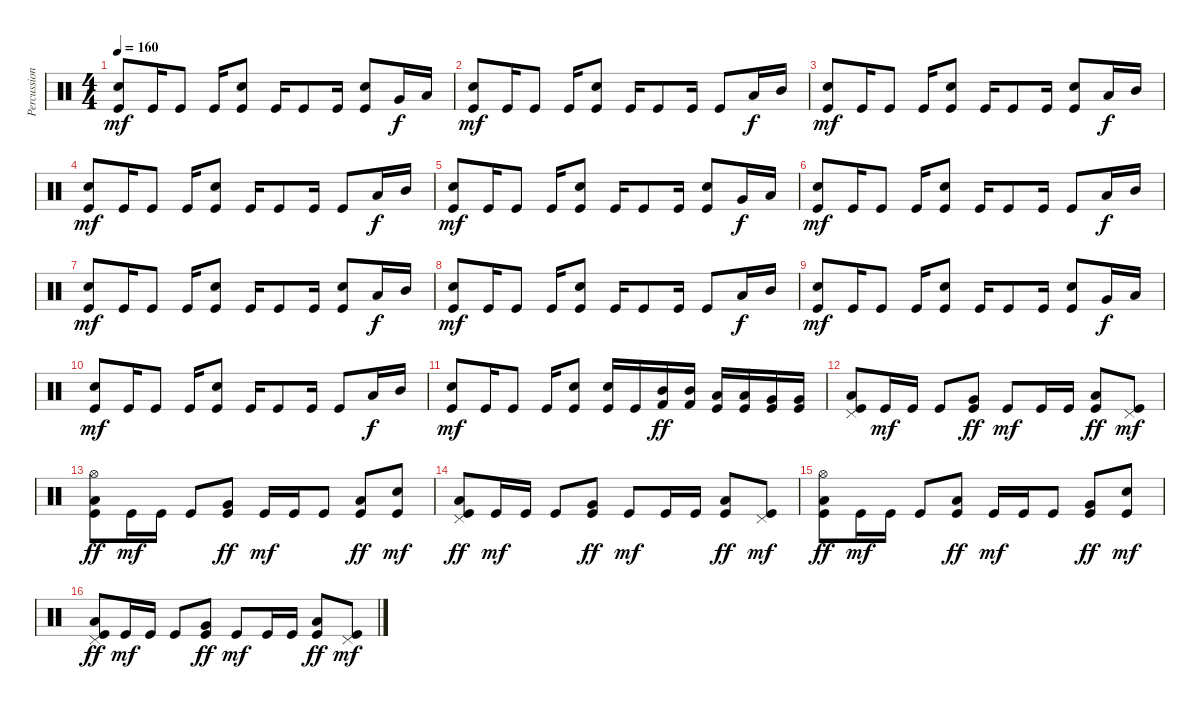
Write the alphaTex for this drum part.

\track ("Percussion" "Percussion") {instrument percussion}
\staff {score}
\articulation defaults
\ts (4 4)
\tempo 160
\clef neutral
\ks c
("Kick (hit)" "Electric Snare (hit)").8{dy mf} "Kick (hit)".16 "Kick (hit)".8 "Kick (hit)".16 ("Kick (hit)" "Snare (hit) 2").8 "Kick (hit)".16 "Kick (hit)".8 "Kick (hit)".16 ("Kick (hit)" "Snare (hit) 2").8 "Very Low Tom (hit)".16{dy f} "Low Tom (hit)".16 |
("Kick (hit)" "Electric Snare (hit)").8{dy mf} "Kick (hit)".16 "Kick (hit)".8 "Kick (hit)".16 ("Kick (hit)" "Snare (hit) 2").8 "Kick (hit)".16 "Kick (hit)".8 "Kick (hit)".16 "Kick (hit)".8 "Low Tom (hit)".16{dy f} "Mid Tom (hit)".16 |
("Kick (hit)" "Electric Snare (hit)").8{dy mf} "Kick (hit)".16 "Kick (hit)".8 "Kick (hit)".16 ("Kick (hit)" "Snare (hit) 2").8 "Kick (hit)".16 "Kick (hit)".8 "Kick (hit)".16 ("Kick (hit)" "Snare (hit) 2").8 "Low Tom (hit)".16{dy f} "Mid Tom (hit)".16 |
("Kick (hit)" "Electric Snare (hit)").8{dy mf} "Kick (hit)".16 "Kick (hit)".8 "Kick (hit)".16 ("Kick (hit)" "Snare (hit) 2").8 "Kick (hit)".16 "Kick (hit)".8 "Kick (hit)".16 "Kick (hit)".8 "Low Tom (hit)".16{dy f} "Mid Tom (hit)".16 |
("Kick (hit)" "Electric Snare (hit)").8{dy mf} "Kick (hit)".16 "Kick (hit)".8 "Kick (hit)".16 ("Kick (hit)" "Snare (hit) 2").8 "Kick (hit)".16 "Kick (hit)".8 "Kick (hit)".16 ("Kick (hit)" "Snare (hit) 2").8 "Very Low Tom (hit)".16{dy f} "Low Tom (hit)".16 |
("Kick (hit)" "Electric Snare (hit)").8{dy mf} "Kick (hit)".16 "Kick (hit)".8 "Kick (hit)".16 ("Kick (hit)" "Snare (hit) 2").8 "Kick (hit)".16 "Kick (hit)".8 "Kick (hit)".16 "Kick (hit)".8 "Low Tom (hit)".16{dy f} "Mid Tom (hit)".16 |
("Kick (hit)" "Electric Snare (hit)").8{dy mf} "Kick (hit)".16 "Kick (hit)".8 "Kick (hit)".16 ("Kick (hit)" "Snare (hit) 2").8 "Kick (hit)".16 "Kick (hit)".8 "Kick (hit)".16 ("Kick (hit)" "Snare (hit) 2").8 "Low Tom (hit)".16{dy f} "Mid Tom (hit)".16 |
("Kick (hit)" "Electric Snare (hit)").8{dy mf} "Kick (hit)".16 "Kick (hit)".8 "Kick (hit)".16 ("Kick (hit)" "Snare (hit) 2").8 "Kick (hit)".16 "Kick (hit)".8 "Kick (hit)".16 "Kick (hit)".8 "Low Tom (hit)".16{dy f} "Mid Tom (hit)".16 |
("Kick (hit)" "Electric Snare (hit)").8{dy mf} "Kick (hit)".16 "Kick (hit)".8 "Kick (hit)".16 ("Kick (hit)" "Snare (hit) 2").8 "Kick (hit)".16 "Kick (hit)".8 "Kick (hit)".16 ("Kick (hit)" "Snare (hit) 2").8 "Very Low Tom (hit)".16{dy f} "Low Tom (hit)".16 |
("Kick (hit)" "Electric Snare (hit)").8{dy mf} "Kick (hit)".16 "Kick (hit)".8 "Kick (hit)".16 ("Kick (hit)" "Snare (hit) 2").8 "Kick (hit)".16 "Kick (hit)".8 "Kick (hit)".16 "Kick (hit)".8 "Low Tom (hit)".16{dy f} "Mid Tom (hit)".16 |
("Kick (hit)" "Electric Snare (hit)").8{dy mf} "Kick (hit)".16 "Kick (hit)".8 "Kick (hit)".16 ("Kick (hit)" "Snare (hit) 2").8 ("Kick (hit)" "Electric Snare (hit)").16 "Kick (hit)".16 ("Mid Tom (hit)" "Kick (hit) 2").16{dy ff} ("Mid Tom (hit)" "Kick (hit) 2").16 ("Low Tom (hit)" "Kick (hit)").16 ("Low Tom (hit)" "Kick (hit)").16 ("Very Low Tom (hit)" "Kick (hit)").16 ("Very Low Tom (hit)" "Kick (hit)").16 |
("Kick (hit)" "Low Tom (hit)" "Pedal Hi-Hat (hit)").8{volume 10} "Kick (hit)".16{dy mf} "Kick (hit)".16 "Kick (hit)".8 ("Kick (hit)" "Very Low Tom (hit)").8{dy ff} "Kick (hit)".8{dy mf} "Kick (hit)".16 "Kick (hit)".16 ("Kick (hit)" "Low Floor Tom (hit)").8{dy ff} ("Kick (hit)" "Pedal Hi-Hat (hit)").8{dy mf} |
("Kick (hit)" "Low Tom (hit)" "Hi-Hat (open)").8{dy ff} "Kick (hit)".16{dy mf} "Kick (hit)".16 "Kick (hit)".8 ("Kick (hit)" "Very Low Tom (hit)").8{dy ff} "Kick (hit)".16{dy mf} "Kick (hit)".16 "Kick (hit)".8 ("Kick (hit)" "Low Floor Tom (hit)").8{dy ff} ("Kick (hit)" "Electric Snare (hit)").8{dy mf} |
("Kick (hit)" "Low Tom (hit)" "Pedal Hi-Hat (hit)").8{dy ff} "Kick (hit)".16{dy mf} "Kick (hit)".16 "Kick (hit)".8 ("Kick (hit)" "Very Low Tom (hit)").8{dy ff} "Kick (hit)".8{dy mf} "Kick (hit)".16 "Kick (hit)".16 ("Kick (hit)" "Low Tom (hit)").8{dy ff} ("Kick (hit)" "Pedal Hi-Hat (hit)").8{dy mf} |
("Kick (hit)" "Low Tom (hit)" "Hi-Hat (open)").8{dy ff} "Kick (hit)".16{dy mf} "Kick (hit)".16 "Kick (hit)".8 ("Kick (hit)" "Low Floor Tom (hit)").8{dy ff} "Kick (hit)".16{dy mf} "Kick (hit)".16 "Kick (hit)".8 ("Kick (hit)" "Very Low Tom (hit)").8{dy ff} ("Kick (hit)" "Electric Snare (hit)").8{dy mf} |
("Kick (hit)" "Low Tom (hit)" "Pedal Hi-Hat (hit)").8{dy ff} "Kick (hit)".16{dy mf} "Kick (hit)".16 "Kick (hit)".8 ("Kick (hit)" "Very Low Tom (hit)").8{dy ff} "Kick (hit)".8{dy mf} "Kick (hit)".16 "Kick (hit)".16 ("Kick (hit)" "Low Floor Tom (hit)").8{dy ff} ("Kick (hit)" "Pedal Hi-Hat (hit)").8{dy mf}
